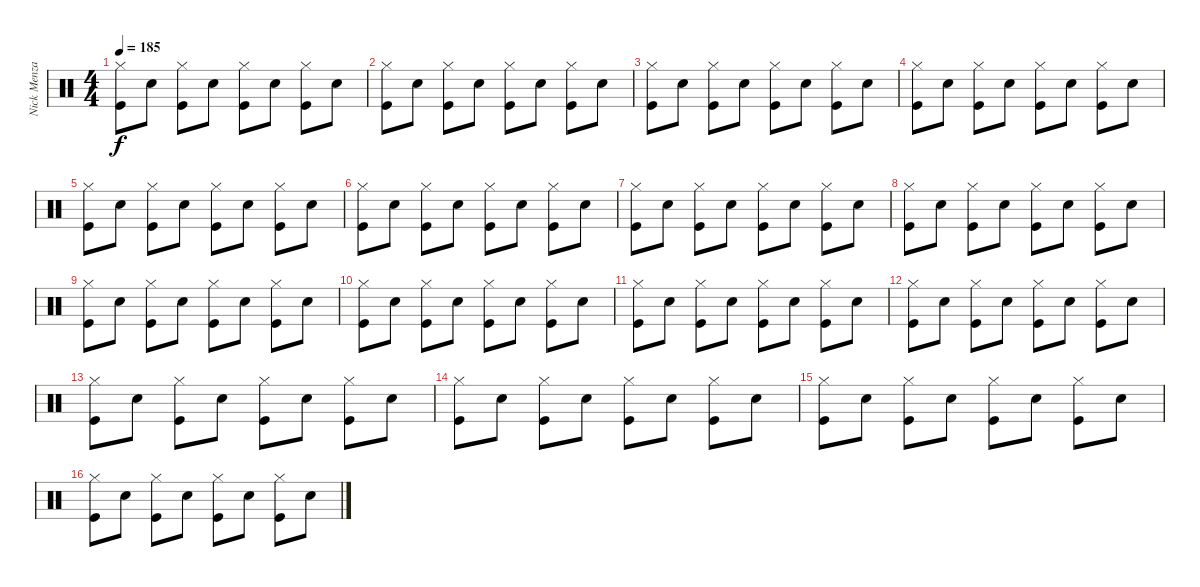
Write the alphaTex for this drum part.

\track ("Nick Menza" "Nick Menza") {instrument percussion}
\staff {score}
\articulation defaults
\ts (4 4)
\tempo 185
\clef neutral
\ks c
("Hi-Hat (closed)" "Kick (hit)").8{dy f} "Snare (hit) 2".8 ("Hi-Hat (closed)" "Kick (hit)").8 "Snare (hit) 2".8 ("Hi-Hat (closed)" "Kick (hit)").8 "Snare (hit) 2".8 ("Hi-Hat (closed)" "Kick (hit)").8 "Snare (hit) 2".8 |
("Hi-Hat (closed)" "Kick (hit)").8 "Snare (hit) 2".8 ("Hi-Hat (closed)" "Kick (hit)").8 "Snare (hit) 2".8 ("Hi-Hat (closed)" "Kick (hit)").8 "Snare (hit) 2".8 ("Hi-Hat (closed)" "Kick (hit)").8 "Snare (hit) 2".8 |
("Hi-Hat (closed)" "Kick (hit)").8 "Snare (hit) 2".8 ("Hi-Hat (closed)" "Kick (hit)").8 "Snare (hit) 2".8 ("Hi-Hat (closed)" "Kick (hit)").8 "Snare (hit) 2".8 ("Hi-Hat (closed)" "Kick (hit)").8 "Snare (hit) 2".8 |
("Hi-Hat (closed)" "Kick (hit)").8 "Snare (hit) 2".8 ("Hi-Hat (closed)" "Kick (hit)").8 "Snare (hit) 2".8 ("Hi-Hat (closed)" "Kick (hit)").8 "Snare (hit) 2".8 ("Hi-Hat (closed)" "Kick (hit)").8 "Snare (hit) 2".8 |
("Hi-Hat (closed)" "Kick (hit)").8 "Snare (hit) 2".8 ("Hi-Hat (closed)" "Kick (hit)").8 "Snare (hit) 2".8 ("Hi-Hat (closed)" "Kick (hit)").8 "Snare (hit) 2".8 ("Hi-Hat (closed)" "Kick (hit)").8 "Snare (hit) 2".8 |
("Hi-Hat (closed)" "Kick (hit)").8 "Snare (hit) 2".8 ("Hi-Hat (closed)" "Kick (hit)").8 "Snare (hit) 2".8 ("Hi-Hat (closed)" "Kick (hit)").8 "Snare (hit) 2".8 ("Hi-Hat (closed)" "Kick (hit)").8 "Snare (hit) 2".8 |
("Hi-Hat (closed)" "Kick (hit)").8 "Snare (hit) 2".8 ("Hi-Hat (closed)" "Kick (hit)").8 "Snare (hit) 2".8 ("Hi-Hat (closed)" "Kick (hit)").8 "Snare (hit) 2".8 ("Hi-Hat (closed)" "Kick (hit)").8 "Snare (hit) 2".8 |
("Hi-Hat (closed)" "Kick (hit)").8 "Snare (hit) 2".8 ("Hi-Hat (closed)" "Kick (hit)").8 "Snare (hit) 2".8 ("Hi-Hat (closed)" "Kick (hit)").8 "Snare (hit) 2".8 ("Hi-Hat (closed)" "Kick (hit)").8 "Snare (hit) 2".8 |
("Hi-Hat (closed)" "Kick (hit)").8 "Snare (hit) 2".8 ("Hi-Hat (closed)" "Kick (hit)").8 "Snare (hit) 2".8 ("Hi-Hat (closed)" "Kick (hit)").8 "Snare (hit) 2".8 ("Hi-Hat (closed)" "Kick (hit)").8 "Snare (hit) 2".8 |
("Hi-Hat (closed)" "Kick (hit)").8 "Snare (hit) 2".8 ("Hi-Hat (closed)" "Kick (hit)").8 "Snare (hit) 2".8 ("Hi-Hat (closed)" "Kick (hit)").8 "Snare (hit) 2".8 ("Hi-Hat (closed)" "Kick (hit)").8 "Snare (hit) 2".8 |
("Hi-Hat (closed)" "Kick (hit)").8 "Snare (hit) 2".8 ("Hi-Hat (closed)" "Kick (hit)").8 "Snare (hit) 2".8 ("Hi-Hat (closed)" "Kick (hit)").8 "Snare (hit) 2".8 ("Hi-Hat (closed)" "Kick (hit)").8 "Snare (hit) 2".8 |
("Hi-Hat (closed)" "Kick (hit)").8 "Snare (hit) 2".8 ("Hi-Hat (closed)" "Kick (hit)").8 "Snare (hit) 2".8 ("Hi-Hat (closed)" "Kick (hit)").8 "Snare (hit) 2".8 ("Hi-Hat (closed)" "Kick (hit)").8 "Snare (hit) 2".8 |
("Hi-Hat (closed)" "Kick (hit)").8 "Snare (hit) 2".8 ("Hi-Hat (closed)" "Kick (hit)").8 "Snare (hit) 2".8 ("Hi-Hat (closed)" "Kick (hit)").8 "Snare (hit) 2".8 ("Hi-Hat (closed)" "Kick (hit)").8 "Snare (hit) 2".8 |
("Hi-Hat (closed)" "Kick (hit)").8 "Snare (hit) 2".8 ("Hi-Hat (closed)" "Kick (hit)").8 "Snare (hit) 2".8 ("Hi-Hat (closed)" "Kick (hit)").8 "Snare (hit) 2".8 ("Hi-Hat (closed)" "Kick (hit)").8 "Snare (hit) 2".8 |
("Hi-Hat (closed)" "Kick (hit)").8 "Snare (hit) 2".8 ("Hi-Hat (closed)" "Kick (hit)").8 "Snare (hit) 2".8 ("Hi-Hat (closed)" "Kick (hit)").8 "Snare (hit) 2".8 ("Hi-Hat (closed)" "Kick (hit)").8 "Snare (hit) 2".8 |
("Hi-Hat (closed)" "Kick (hit)").8 "Snare (hit) 2".8 ("Hi-Hat (closed)" "Kick (hit)").8 "Snare (hit) 2".8 ("Hi-Hat (closed)" "Kick (hit)").8 "Snare (hit) 2".8 ("Hi-Hat (closed)" "Kick (hit)").8 "Snare (hit) 2".8
